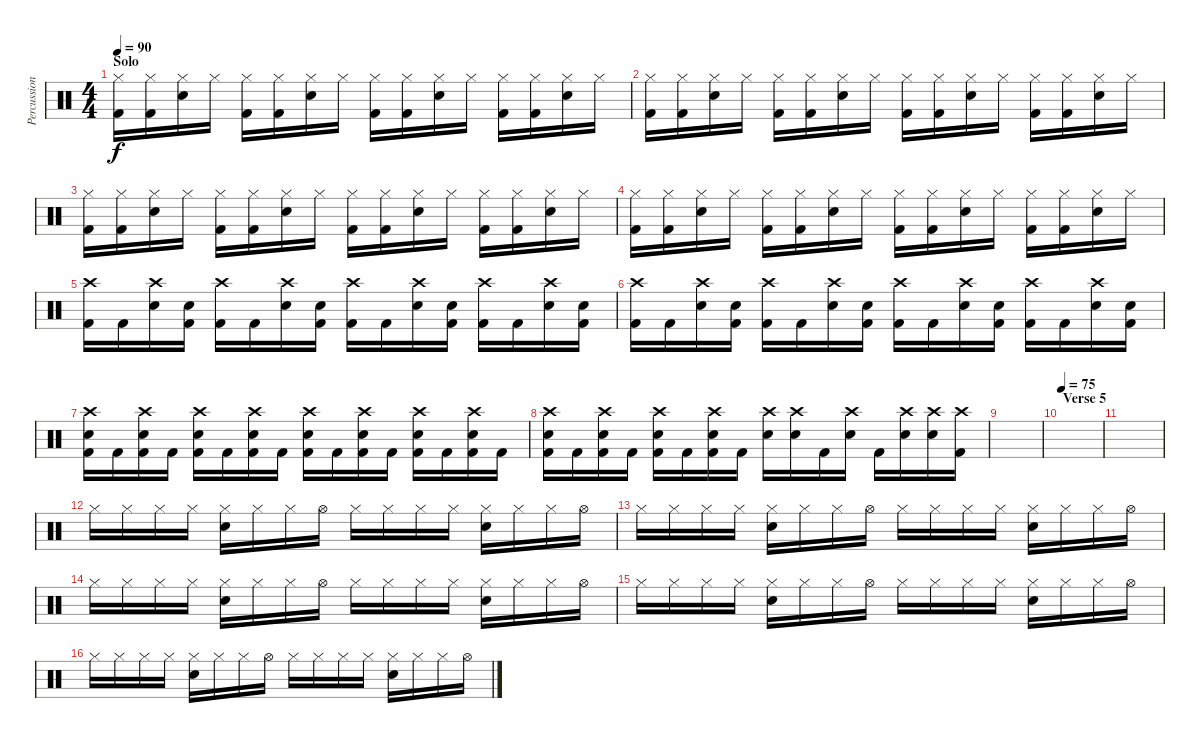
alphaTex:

\track ("Percussion" "Percussion") {instrument percussion}
\staff {score}
\articulation defaults
\ts (4 4)
\section ("" "Solo")
\tempo 90
\clef neutral
\ks c
("Hi-Hat (closed)" "Kick (hit) 2").16{dy f} ("Hi-Hat (closed)" "Kick (hit) 2").16 ("Hi-Hat (closed)" "Snare (hit) 2").16 "Hi-Hat (closed)".16 ("Hi-Hat (closed)" "Kick (hit) 2").16 ("Hi-Hat (closed)" "Kick (hit) 2").16 ("Hi-Hat (closed)" "Snare (hit) 2").16 "Hi-Hat (closed)".16 ("Hi-Hat (closed)" "Kick (hit) 2").16 ("Hi-Hat (closed)" "Kick (hit) 2").16 ("Hi-Hat (closed)" "Snare (hit) 2").16 "Hi-Hat (closed)".16 ("Hi-Hat (closed)" "Kick (hit) 2").16 ("Hi-Hat (closed)" "Kick (hit) 2").16 ("Hi-Hat (closed)" "Snare (hit) 2").16 "Hi-Hat (closed)".16 |
("Hi-Hat (closed)" "Kick (hit) 2").16 ("Hi-Hat (closed)" "Kick (hit) 2").16 ("Hi-Hat (closed)" "Snare (hit) 2").16 "Hi-Hat (closed)".16 ("Hi-Hat (closed)" "Kick (hit) 2").16 ("Hi-Hat (closed)" "Kick (hit) 2").16 ("Hi-Hat (closed)" "Snare (hit) 2").16 "Hi-Hat (closed)".16 ("Hi-Hat (closed)" "Kick (hit) 2").16 ("Hi-Hat (closed)" "Kick (hit) 2").16 ("Hi-Hat (closed)" "Snare (hit) 2").16 "Hi-Hat (closed)".16 ("Hi-Hat (closed)" "Kick (hit) 2").16 ("Hi-Hat (closed)" "Kick (hit) 2").16 ("Hi-Hat (closed)" "Snare (hit) 2").16 "Hi-Hat (closed)".16 |
("Hi-Hat (closed)" "Kick (hit) 2").16 ("Hi-Hat (closed)" "Kick (hit) 2").16 ("Hi-Hat (closed)" "Snare (hit) 2").16 "Hi-Hat (closed)".16 ("Hi-Hat (closed)" "Kick (hit) 2").16 ("Hi-Hat (closed)" "Kick (hit) 2").16 ("Hi-Hat (closed)" "Snare (hit) 2").16 "Hi-Hat (closed)".16 ("Hi-Hat (closed)" "Kick (hit) 2").16 ("Hi-Hat (closed)" "Kick (hit) 2").16 ("Hi-Hat (closed)" "Snare (hit) 2").16 "Hi-Hat (closed)".16 ("Hi-Hat (closed)" "Kick (hit) 2").16 ("Hi-Hat (closed)" "Kick (hit) 2").16 ("Hi-Hat (closed)" "Snare (hit) 2").16 "Hi-Hat (closed)".16 |
("Hi-Hat (closed)" "Kick (hit) 2").16 ("Hi-Hat (closed)" "Kick (hit) 2").16 ("Hi-Hat (closed)" "Snare (hit) 2").16 "Hi-Hat (closed)".16 ("Hi-Hat (closed)" "Kick (hit) 2").16 ("Hi-Hat (closed)" "Kick (hit) 2").16 ("Hi-Hat (closed)" "Snare (hit) 2").16 "Hi-Hat (closed)".16 ("Hi-Hat (closed)" "Kick (hit) 2").16 ("Hi-Hat (closed)" "Kick (hit) 2").16 ("Hi-Hat (closed)" "Snare (hit) 2").16 "Hi-Hat (closed)".16 ("Hi-Hat (closed)" "Kick (hit) 2").16 ("Hi-Hat (closed)" "Kick (hit) 2").16 ("Hi-Hat (closed)" "Snare (hit) 2").16 "Hi-Hat (closed)".16 |
("Crash high (hit)" "Kick (hit) 2").16 "Kick (hit) 2".16 ("Crash high (hit)" "Snare (hit) 2").16 ("Snare (hit) 2" "Kick (hit) 2").16 ("Crash high (hit)" "Kick (hit) 2").16 "Kick (hit) 2".16 ("Crash high (hit)" "Snare (hit) 2").16 ("Snare (hit) 2" "Kick (hit) 2").16 ("Crash high (hit)" "Kick (hit) 2").16 "Kick (hit) 2".16 ("Crash high (hit)" "Snare (hit) 2").16 ("Snare (hit) 2" "Kick (hit) 2").16 ("Crash high (hit)" "Kick (hit) 2").16 "Kick (hit) 2".16 ("Crash high (hit)" "Snare (hit) 2").16 ("Snare (hit) 2" "Kick (hit) 2").16 |
("Crash high (hit)" "Kick (hit) 2").16 "Kick (hit) 2".16 ("Crash high (hit)" "Snare (hit) 2").16 ("Snare (hit) 2" "Kick (hit) 2").16 ("Crash high (hit)" "Kick (hit) 2").16 "Kick (hit) 2".16 ("Crash high (hit)" "Snare (hit) 2").16 ("Snare (hit) 2" "Kick (hit) 2").16 ("Crash high (hit)" "Kick (hit) 2").16 "Kick (hit) 2".16 ("Crash high (hit)" "Snare (hit) 2").16 ("Snare (hit) 2" "Kick (hit) 2").16 ("Crash high (hit)" "Kick (hit) 2").16 "Kick (hit) 2".16 ("Crash high (hit)" "Snare (hit) 2").16 ("Snare (hit) 2" "Kick (hit) 2").16 |
("Crash high (hit)" "Snare (hit) 2" "Kick (hit) 2").16 "Kick (hit) 2".16 ("Crash high (hit)" "Snare (hit) 2" "Kick (hit) 2").16 "Kick (hit) 2".16 ("Crash high (hit)" "Snare (hit) 2" "Kick (hit) 2").16 "Kick (hit) 2".16 ("Crash high (hit)" "Snare (hit) 2" "Kick (hit) 2").16 "Kick (hit) 2".16 ("Crash high (hit)" "Snare (hit) 2" "Kick (hit) 2").16 "Kick (hit) 2".16 ("Crash high (hit)" "Snare (hit) 2" "Kick (hit) 2").16 "Kick (hit) 2".16 ("Crash high (hit)" "Snare (hit) 2" "Kick (hit) 2").16 "Kick (hit) 2".16 ("Crash high (hit)" "Snare (hit) 2" "Kick (hit) 2").16 "Kick (hit) 2".16 |
("Crash high (hit)" "Snare (hit) 2" "Kick (hit) 2").16 "Kick (hit) 2".16 ("Crash high (hit)" "Snare (hit) 2" "Kick (hit) 2").16 "Kick (hit) 2".16 ("Crash high (hit)" "Snare (hit) 2" "Kick (hit) 2").16 "Kick (hit) 2".16 ("Crash high (hit)" "Snare (hit) 2" "Kick (hit) 2").16 "Kick (hit) 2".16 ("Crash high (hit)" "Snare (hit) 2").16 ("Crash high (hit)" "Snare (hit) 2").16 "Kick (hit) 2".16 ("Crash high (hit)" "Snare (hit) 2").16 "Kick (hit) 2".16 ("Crash high (hit)" "Snare (hit) 2").16 ("Crash high (hit)" "Snare (hit) 2").16 ("Crash high (hit)" "Kick (hit) 2").16 |
|
\section ("" "Verse 5")
\tempo 75
|
|
"Hi-Hat (closed)".16 "Hi-Hat (closed)".16 "Hi-Hat (closed)".16 "Hi-Hat (closed)".16 ("Hi-Hat (closed)" "Snare (hit) 2").16 "Hi-Hat (closed)".16 "Hi-Hat (closed)".16 "Hi-Hat (open)".16 "Hi-Hat (closed)".16 "Hi-Hat (closed)".16 "Hi-Hat (closed)".16 "Hi-Hat (closed)".16 ("Hi-Hat (closed)" "Snare (hit) 2").16 "Hi-Hat (closed)".16 "Hi-Hat (closed)".16 "Hi-Hat (open)".16 |
"Hi-Hat (closed)".16 "Hi-Hat (closed)".16 "Hi-Hat (closed)".16 "Hi-Hat (closed)".16 ("Hi-Hat (closed)" "Snare (hit) 2").16 "Hi-Hat (closed)".16 "Hi-Hat (closed)".16 "Hi-Hat (open)".16 "Hi-Hat (closed)".16 "Hi-Hat (closed)".16 "Hi-Hat (closed)".16 "Hi-Hat (closed)".16 ("Hi-Hat (closed)" "Snare (hit) 2").16 "Hi-Hat (closed)".16 "Hi-Hat (closed)".16 "Hi-Hat (open)".16 |
"Hi-Hat (closed)".16 "Hi-Hat (closed)".16 "Hi-Hat (closed)".16 "Hi-Hat (closed)".16 ("Hi-Hat (closed)" "Snare (hit) 2").16 "Hi-Hat (closed)".16 "Hi-Hat (closed)".16 "Hi-Hat (open)".16 "Hi-Hat (closed)".16 "Hi-Hat (closed)".16 "Hi-Hat (closed)".16 "Hi-Hat (closed)".16 ("Hi-Hat (closed)" "Snare (hit) 2").16 "Hi-Hat (closed)".16 "Hi-Hat (closed)".16 "Hi-Hat (open)".16 |
"Hi-Hat (closed)".16 "Hi-Hat (closed)".16 "Hi-Hat (closed)".16 "Hi-Hat (closed)".16 ("Hi-Hat (closed)" "Snare (hit) 2").16 "Hi-Hat (closed)".16 "Hi-Hat (closed)".16 "Hi-Hat (open)".16 "Hi-Hat (closed)".16 "Hi-Hat (closed)".16 "Hi-Hat (closed)".16 "Hi-Hat (closed)".16 ("Hi-Hat (closed)" "Snare (hit) 2").16 "Hi-Hat (closed)".16 "Hi-Hat (closed)".16 "Hi-Hat (open)".16 |
"Hi-Hat (closed)".16 "Hi-Hat (closed)".16 "Hi-Hat (closed)".16 "Hi-Hat (closed)".16 ("Hi-Hat (closed)" "Snare (hit) 2").16 "Hi-Hat (closed)".16 "Hi-Hat (closed)".16 "Hi-Hat (open)".16 "Hi-Hat (closed)".16 "Hi-Hat (closed)".16 "Hi-Hat (closed)".16 "Hi-Hat (closed)".16 ("Hi-Hat (closed)" "Snare (hit) 2").16 "Hi-Hat (closed)".16 "Hi-Hat (closed)".16 "Hi-Hat (open)".16
